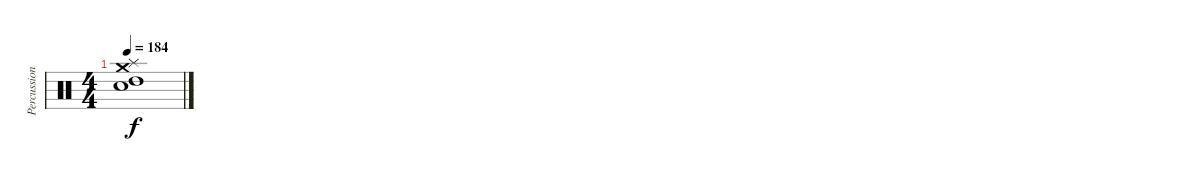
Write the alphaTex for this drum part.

\track ("Percussion" "Percussion") {instrument percussion}
\staff {score}
\articulation defaults
\ts (4 4)
\tempo 184
\clef neutral
\ks c
("Splash (hit)" "Electric Snare (hit)" "High Tom (hit)" "Crash medium (hit)").1{dy f}
